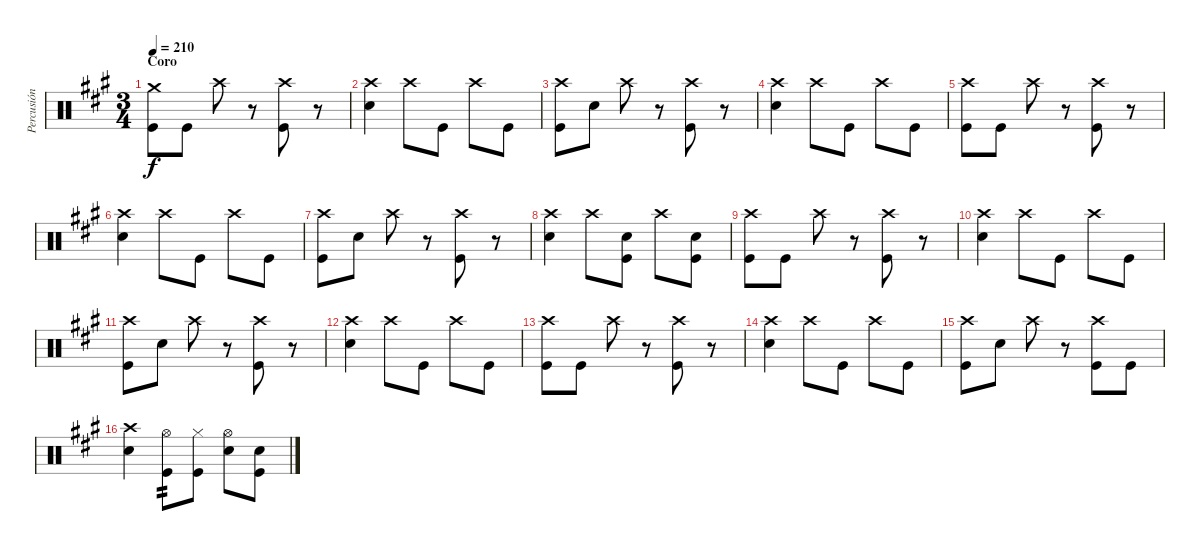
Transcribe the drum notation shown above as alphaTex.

\track ("Percusión" "Percusión") {instrument percussion}
\staff {score}
\articulation defaults
\ts (3 4)
\section ("" "Coro")
\tempo 210
\clef neutral
\ks a
("Crash medium (hit)" "Kick (hit)").8{dy f} "Kick (hit)".8 "Crash high (hit)".8 r.8 ("Crash high (hit)" "Kick (hit)").8 r.8 |
("Crash high (hit)" "Electric Snare (hit)").4 "Crash high (hit)".8 "Kick (hit)".8 "Crash high (hit)".8 "Kick (hit)".8 |
("Crash high (hit)" "Kick (hit)").8 "Electric Snare (hit)".8 "Crash high (hit)".8 r.8 ("Crash high (hit)" "Kick (hit)").8 r.8 |
("Crash high (hit)" "Electric Snare (hit)").4 "Crash high (hit)".8 "Kick (hit)".8 "Crash high (hit)".8 "Kick (hit)".8 |
("Crash high (hit)" "Kick (hit)").8 "Kick (hit)".8 "Crash high (hit)".8 r.8 ("Crash high (hit)" "Kick (hit)").8 r.8 |
("Crash high (hit)" "Electric Snare (hit)").4 "Crash high (hit)".8 "Kick (hit)".8 "Crash high (hit)".8 "Kick (hit)".8 |
("Crash high (hit)" "Kick (hit)").8 "Electric Snare (hit)".8 "Crash high (hit)".8 r.8 ("Crash high (hit)" "Kick (hit)").8 r.8 |
("Crash high (hit)" "Electric Snare (hit)").4 "Crash high (hit)".8 ("Electric Snare (hit)" "Kick (hit)").8 "Crash high (hit)".8 ("Electric Snare (hit)" "Kick (hit)").8 |
("Crash high (hit)" "Kick (hit)").8 "Kick (hit)".8 "Crash high (hit)".8 r.8 ("Crash high (hit)" "Kick (hit)").8 r.8 |
("Crash high (hit)" "Electric Snare (hit)").4 "Crash high (hit)".8 "Kick (hit)".8 "Crash high (hit)".8 "Kick (hit)".8 |
("Crash high (hit)" "Kick (hit)").8 "Electric Snare (hit)".8 "Crash high (hit)".8 r.8 ("Crash high (hit)" "Kick (hit)").8 r.8 |
("Crash high (hit)" "Electric Snare (hit)").4 "Crash high (hit)".8 "Kick (hit)".8 "Crash high (hit)".8 "Kick (hit)".8 |
("Crash high (hit)" "Kick (hit)").8 "Kick (hit)".8 "Crash high (hit)".8 r.8 ("Crash high (hit)" "Kick (hit)").8 r.8 |
("Crash high (hit)" "Electric Snare (hit)").4 "Crash high (hit)".8 "Kick (hit)".8 "Crash high (hit)".8 "Kick (hit)".8 |
("Crash high (hit)" "Kick (hit)").8 "Electric Snare (hit)".8 "Crash high (hit)".8 r.8 ("Crash high (hit)" "Kick (hit)").8 "Kick (hit)".8 |
("Crash high (hit)" "Electric Snare (hit)").4 ("Hi-Hat (open)" "Kick (hit)").8{tp 2} ("Hi-Hat (closed)" "Kick (hit)").8 ("Hi-Hat (open)" "Electric Snare (hit)").8 ("Electric Snare (hit)" "Kick (hit)").8
